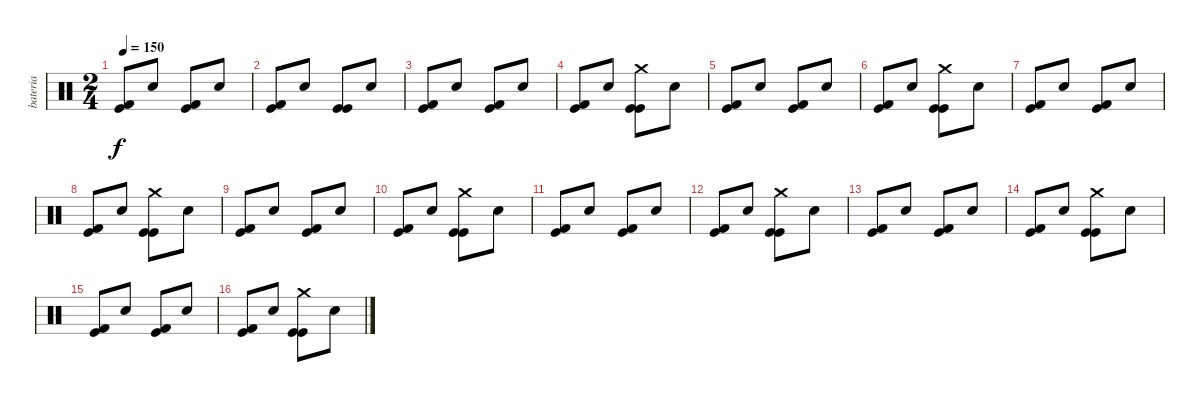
\track ("bateria" "bateria") {instrument percussion}
\staff {score}
\articulation defaults
\ts (2 4)
\tempo 150
\clef neutral
\ks c
("Kick (hit) 2" "Kick (hit)").8{dy f} "Electric Snare (hit)".8 ("Kick (hit) 2" "Kick (hit)").8 "Electric Snare (hit)".8 |
("Kick (hit) 2" "Kick (hit)").8 "Electric Snare (hit)".8 ("Kick (hit)" "Kick (hit)").8 "Electric Snare (hit)".8 |
("Kick (hit) 2" "Kick (hit)").8 "Electric Snare (hit)".8 ("Kick (hit) 2" "Kick (hit)").8 "Electric Snare (hit)".8 |
("Kick (hit) 2" "Kick (hit)").8 "Electric Snare (hit)".8 ("Crash medium (hit)" "Kick (hit)" "Kick (hit)").8 "Electric Snare (hit)".8 |
("Kick (hit) 2" "Kick (hit)").8 "Electric Snare (hit)".8 ("Kick (hit) 2" "Kick (hit)").8 "Electric Snare (hit)".8 |
("Kick (hit) 2" "Kick (hit)").8 "Electric Snare (hit)".8 ("Crash medium (hit)" "Kick (hit)" "Kick (hit)").8 "Electric Snare (hit)".8 |
("Kick (hit) 2" "Kick (hit)").8 "Electric Snare (hit)".8 ("Kick (hit) 2" "Kick (hit)").8 "Electric Snare (hit)".8 |
("Kick (hit) 2" "Kick (hit)").8 "Electric Snare (hit)".8 ("Crash medium (hit)" "Kick (hit)" "Kick (hit)").8 "Electric Snare (hit)".8 |
("Kick (hit) 2" "Kick (hit)").8 "Electric Snare (hit)".8 ("Kick (hit) 2" "Kick (hit)").8 "Electric Snare (hit)".8 |
("Kick (hit) 2" "Kick (hit)").8 "Electric Snare (hit)".8 ("Crash medium (hit)" "Kick (hit)" "Kick (hit)").8 "Electric Snare (hit)".8 |
("Kick (hit) 2" "Kick (hit)").8 "Electric Snare (hit)".8 ("Kick (hit) 2" "Kick (hit)").8 "Electric Snare (hit)".8 |
("Kick (hit) 2" "Kick (hit)").8 "Electric Snare (hit)".8 ("Crash medium (hit)" "Kick (hit)" "Kick (hit)").8 "Electric Snare (hit)".8 |
("Kick (hit) 2" "Kick (hit)").8 "Electric Snare (hit)".8 ("Kick (hit) 2" "Kick (hit)").8 "Electric Snare (hit)".8 |
("Kick (hit) 2" "Kick (hit)").8 "Electric Snare (hit)".8 ("Crash medium (hit)" "Kick (hit)" "Kick (hit)").8 "Electric Snare (hit)".8 |
("Kick (hit) 2" "Kick (hit)").8 "Electric Snare (hit)".8 ("Kick (hit) 2" "Kick (hit)").8 "Electric Snare (hit)".8 |
("Kick (hit) 2" "Kick (hit)").8 "Electric Snare (hit)".8 ("Crash medium (hit)" "Kick (hit)" "Kick (hit)").8 "Electric Snare (hit)".8
